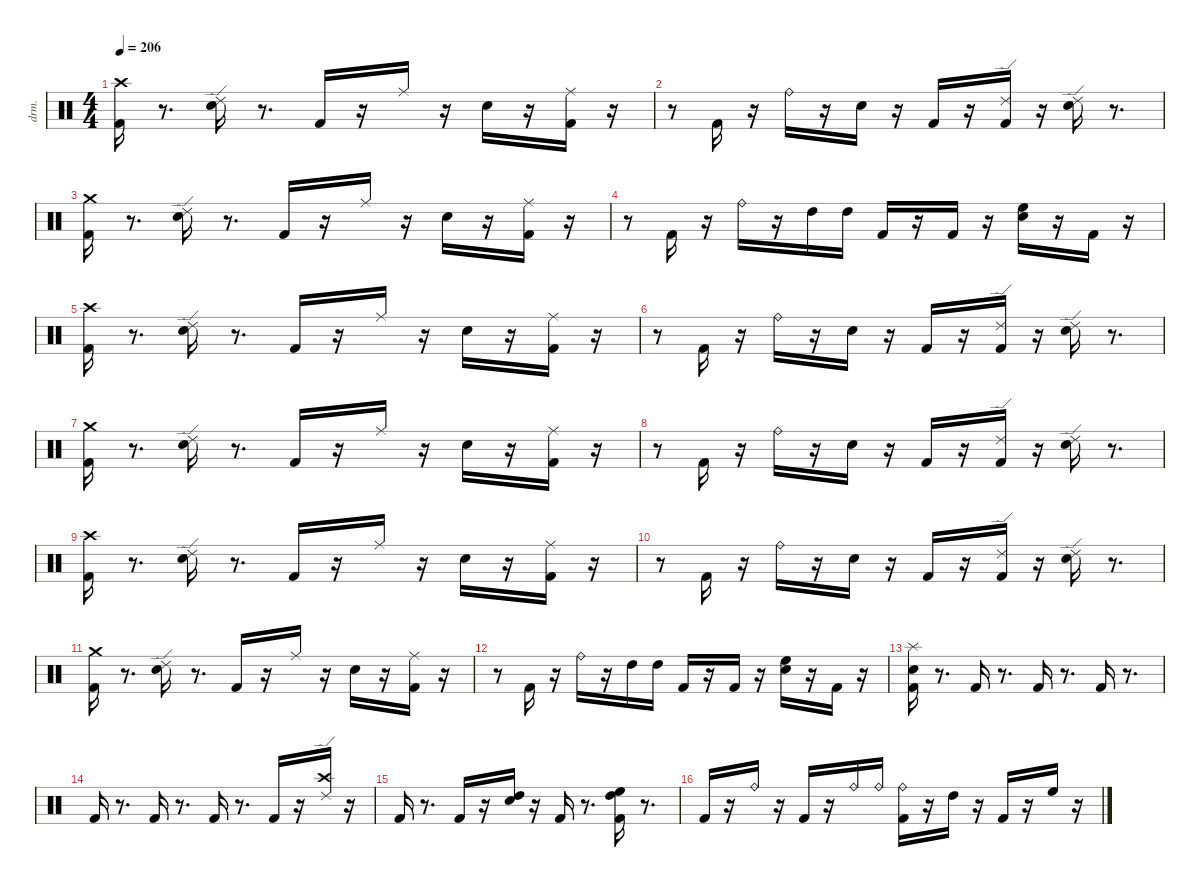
\defaultSystemsLayout 4
\hideDynamics
\bracketExtendMode nobrackets
\otherSystemsTrackNameOrientation horizontal
\track ("EZdrummer 3" "drm.") {instrument percussion}
\staff {score}
\articulation defaults
\ts (4 4)
\tempo 206
\clef neutral
\ks aminor
("Kick (hit) 2" "Crash high (hit)"{acc #}).16{dy ff beam Down} r.8{d beam Down} ("Snare (hit) 2" "Ride (edge) 2").16{beam Down} r.8{d beam Down} "Kick (hit) 2".16{beam Up} r.16{beam Up} "Ride (middle)"{acc #}.16{dy fff beam Down} r.16{beam Down} "Snare (hit) 2".16{dy ff beam Down} r.16{beam Down} ("Kick (hit) 2" "Ride (middle)"{acc #}).16{beam Down} r.16{beam Down} |
r.8{beam Down} "Kick (hit) 2".16{beam Up} r.16{beam Up} "Ride (bell)".16{beam Down} r.16{beam Down} "Snare (hit) 2".16{beam Down} r.16{beam Down} "Kick (hit) 2".16{dy mf beam Up} r.16{beam Up} ("Kick (hit) 2" "Ride (edge) 2").16{dy fff beam Up} r.16{beam Up} ("Snare (hit) 2" "Ride (edge) 2").16{dy ff beam Down} r.8{d beam Down} |
("Kick (hit) 2" "Crash medium (hit)").16{beam Down} r.8{d beam Down} ("Snare (hit) 2" "Ride (edge) 2").16{beam Down} r.8{d beam Down} "Kick (hit) 2".16{beam Up} r.16{beam Up} "Ride (middle)"{acc #}.16{dy fff beam Down} r.16{beam Down} "Snare (hit) 2".16{dy ff beam Down} r.16{beam Down} ("Kick (hit) 2" "Ride (middle)"{acc #}).16{beam Down} r.16{beam Down} |
r.8{beam Down} "Kick (hit) 2".16{beam Up} r.16{beam Up} "Ride (bell)".16{beam Down} r.16{beam Down} "High Tom (hit)".16{dy fff beam Down} "High Tom (hit)".16{dy ff beam Down} "Kick (hit) 2".16{dy mf beam Up} r.16{beam Up} "Kick (hit) 2".16{dy fff beam Up} r.16{beam Up} ("Snare (hit) 2" "High Floor Tom (hit)").16{dy ff beam Down} r.16{beam Down} "Kick (hit) 2".16{dy mp beam Up} r.16{beam Up} |
("Kick (hit) 2" "Crash high (hit)"{acc #}).16{dy ff beam Down} r.8{d beam Down} ("Snare (hit) 2" "Ride (edge) 2").16{beam Down} r.8{d beam Down} "Kick (hit) 2".16{beam Up} r.16{beam Up} "Ride (middle)"{acc #}.16{dy fff beam Down} r.16{beam Down} "Snare (hit) 2".16{dy ff beam Down} r.16{beam Down} ("Kick (hit) 2" "Ride (middle)"{acc #}).16{beam Down} r.16{beam Down} |
r.8{beam Down} "Kick (hit) 2".16{beam Up} r.16{beam Up} "Ride (bell)".16{dy fff beam Down} r.16{beam Down} "Snare (hit) 2".16{dy ff beam Down} r.16{beam Down} "Kick (hit) 2".16{dy mf beam Up} r.16{beam Up} ("Kick (hit) 2" "Ride (edge) 2").16{dy fff beam Up} r.16{beam Up} ("Snare (hit) 2" "Ride (edge) 2").16{dy ff beam Down} r.8{d beam Down} |
("Kick (hit) 2" "Crash medium (hit)").16{beam Down} r.8{d beam Down} ("Snare (hit) 2" "Ride (edge) 2").16{beam Down} r.8{d beam Down} "Kick (hit) 2".16{beam Up} r.16{beam Up} "Ride (middle)"{acc #}.16{dy fff beam Down} r.16{beam Down} "Snare (hit) 2".16{dy ff beam Down} r.16{beam Down} ("Kick (hit) 2" "Ride (middle)"{acc #}).16{beam Down} r.16{beam Down} |
r.8{beam Down} "Kick (hit) 2".16{beam Up} r.16{beam Up} "Ride (bell)".16{beam Down} r.16{beam Down} "Snare (hit) 2".16{beam Down} r.16{beam Down} "Kick (hit) 2".16{dy mf beam Up} r.16{beam Up} ("Kick (hit) 2" "Ride (edge) 2").16{dy fff beam Up} r.16{beam Up} ("Snare (hit) 2" "Ride (edge) 2").16{dy ff beam Down} r.8{d beam Down} |
("Kick (hit) 2" "Crash high (hit)"{acc #}).16{beam Down} r.8{d beam Down} ("Snare (hit) 2" "Ride (edge) 2").16{beam Down} r.8{d beam Down} "Kick (hit) 2".16{beam Up} r.16{beam Up} "Ride (middle)"{acc #}.16{dy fff beam Down} r.16{beam Down} "Snare (hit) 2".16{dy ff beam Down} r.16{beam Down} ("Kick (hit) 2" "Ride (middle)"{acc #}).16{beam Down} r.16{beam Down} |
r.8{beam Down} "Kick (hit) 2".16{beam Up} r.16{beam Up} "Ride (bell)".16{beam Down} r.16{beam Down} "Snare (hit) 2".16{beam Down} r.16{beam Down} "Kick (hit) 2".16{dy mf beam Up} r.16{beam Up} ("Kick (hit) 2" "Ride (edge) 2").16{dy fff beam Up} r.16{beam Up} ("Snare (hit) 2" "Ride (edge) 2").16{dy ff beam Down} r.8{d beam Down} |
("Kick (hit) 2" "Crash medium (hit)").16{beam Down} r.8{d beam Down} ("Snare (hit) 2" "Ride (edge) 2").16{beam Down} r.8{d beam Down} "Kick (hit) 2".16{beam Up} r.16{beam Up} "Ride (middle)"{acc #}.16{dy fff beam Down} r.16{beam Down} "Snare (hit) 2".16{dy ff beam Down} r.16{beam Down} ("Kick (hit) 2" "Ride (middle)"{acc #}).16{beam Down} r.16{beam Down} |
r.8{beam Down} "Kick (hit) 2".16{beam Up} r.16{beam Up} "Ride (bell)".16{beam Down} r.16{beam Down} "High Tom (hit)".16{dy fff beam Down} "High Tom (hit)".16{dy ff beam Down} "Kick (hit) 2".16{dy mf beam Up} r.16{beam Up} "Kick (hit) 2".16{dy fff beam Up} r.16{beam Up} ("Snare (hit) 2" "High Floor Tom (hit)").16{dy ff beam Down} r.16{beam Down} "Kick (hit) 2".16{dy f beam Up} r.16{beam Up} |
("Kick (hit) 2" "Snare (hit) 2" "Splash (hit)").16{dy fff beam Down} r.8{d beam Down} "Kick (hit) 2".16{dy f beam Up} r.8{d beam Up} "Kick (hit) 2".16{dy fff beam Up} r.8{d beam Up} "Kick (hit) 2".16{dy f beam Up} r.8{d beam Up} |
"Kick (hit) 2".16{dy fff beam Up} r.8{d beam Up} "Kick (hit) 2".16{dy f beam Up} r.8{d beam Up} "Kick (hit) 2".16{dy fff beam Up} r.8{d beam Up} "Kick (hit) 2".16{dy f beam Up} r.16{beam Up} ("Crash high (hit)"{acc #} "Ride (edge) 2").16{dy ff beam Down} r.16{beam Down} |
"Kick (hit) 2".16{dy fff beam Up} r.8{d beam Up} "Kick (hit) 2".16{dy f beam Up} r.16{beam Up} ("Snare (hit) 2" "High Tom (hit)").16{dy ff beam Down} r.16{beam Down} "Kick (hit) 2".16{dy fff beam Up} r.8{d beam Up} ("Kick (hit) 2" "High Tom (hit)" "High Floor Tom (hit)").16{dy f beam Down} r.8{d beam Down} |
"Kick (hit) 2".16{dy fff beam Up} r.16{beam Up} "Ride (bell)".16{dy ff beam Down} r.16{beam Down} "Kick (hit) 2".16{dy f beam Up} r.16{beam Up} "Ride (bell)".16{dy mf beam Down} "Ride (bell)".16{dy mp beam Down} ("Kick (hit) 2" "Ride (bell)").16{dy fff beam Down} r.16{beam Down} "High Tom (hit)".16{dy ff beam Down} r.16{beam Down} "Kick (hit) 2".16{dy f beam Up} r.16{beam Up} "High Floor Tom (hit)".16{dy ff beam Down} r.16{beam Down}
